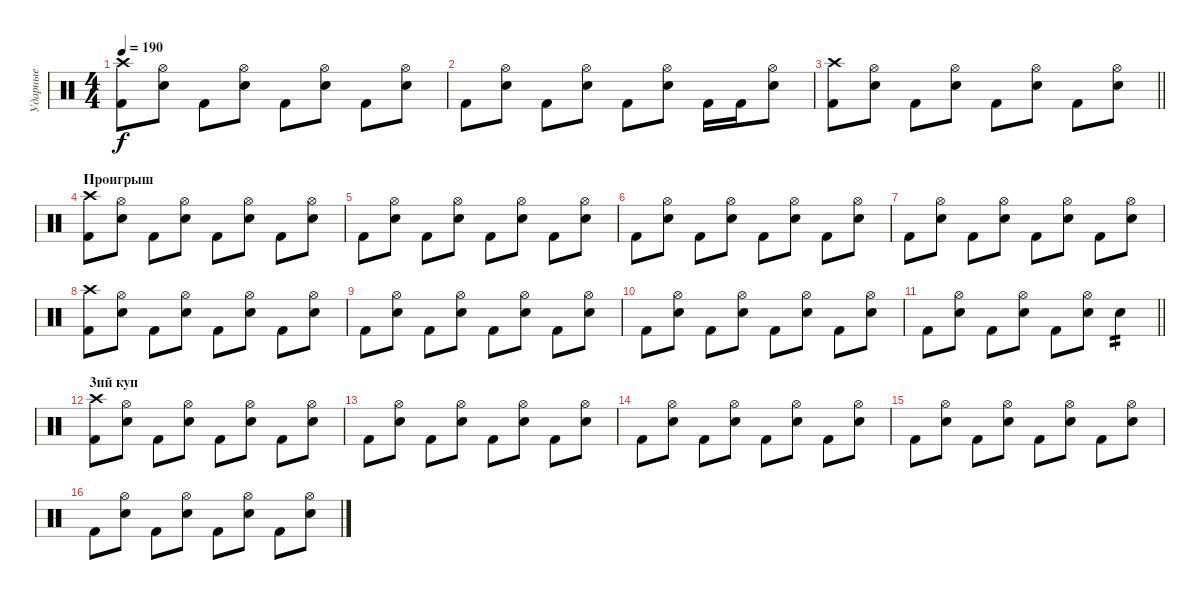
\track ("Ударные" "Ударные") {instrument percussion}
\staff {score}
\articulation defaults
\ts (4 4)
\tempo 190
\clef neutral
\ks c
("Crash high (hit)" "Kick (hit) 2").8{dy f} ("Hi-Hat (open)" "Electric Snare (hit)").8 "Kick (hit) 2".8 ("Hi-Hat (open)" "Electric Snare (hit)").8 "Kick (hit) 2".8 ("Hi-Hat (open)" "Electric Snare (hit)").8 "Kick (hit) 2".8 ("Hi-Hat (open)" "Electric Snare (hit)").8 |
"Kick (hit) 2".8 ("Hi-Hat (open)" "Electric Snare (hit)").8 "Kick (hit) 2".8 ("Hi-Hat (open)" "Electric Snare (hit)").8 "Kick (hit) 2".8 ("Hi-Hat (open)" "Electric Snare (hit)").8 "Kick (hit) 2".16 "Kick (hit) 2".16 ("Hi-Hat (open)" "Electric Snare (hit)").8 |
\barLineRight lightlight
("Crash high (hit)" "Kick (hit) 2").8 ("Hi-Hat (open)" "Electric Snare (hit)").8 "Kick (hit) 2".8 ("Hi-Hat (open)" "Electric Snare (hit)").8 "Kick (hit) 2".8 ("Hi-Hat (open)" "Electric Snare (hit)").8 "Kick (hit) 2".8 ("Hi-Hat (open)" "Electric Snare (hit)").8 |
\section ("" "Проигрыш")
("Crash high (hit)" "Kick (hit) 2").8 ("Hi-Hat (open)" "Electric Snare (hit)").8 "Kick (hit) 2".8 ("Hi-Hat (open)" "Electric Snare (hit)").8 "Kick (hit) 2".8 ("Hi-Hat (open)" "Electric Snare (hit)").8 "Kick (hit) 2".8 ("Hi-Hat (open)" "Electric Snare (hit)").8 |
"Kick (hit) 2".8 ("Hi-Hat (open)" "Electric Snare (hit)").8 "Kick (hit) 2".8 ("Hi-Hat (open)" "Electric Snare (hit)").8 "Kick (hit) 2".8 ("Hi-Hat (open)" "Electric Snare (hit)").8 "Kick (hit) 2".8 ("Hi-Hat (open)" "Electric Snare (hit)").8 |
"Kick (hit) 2".8 ("Hi-Hat (open)" "Electric Snare (hit)").8 "Kick (hit) 2".8 ("Hi-Hat (open)" "Electric Snare (hit)").8 "Kick (hit) 2".8 ("Hi-Hat (open)" "Electric Snare (hit)").8 "Kick (hit) 2".8 ("Hi-Hat (open)" "Electric Snare (hit)").8 |
"Kick (hit) 2".8 ("Hi-Hat (open)" "Electric Snare (hit)").8 "Kick (hit) 2".8 ("Hi-Hat (open)" "Electric Snare (hit)").8 "Kick (hit) 2".8 ("Hi-Hat (open)" "Electric Snare (hit)").8 "Kick (hit) 2".8 ("Hi-Hat (open)" "Electric Snare (hit)").8 |
("Crash high (hit)" "Kick (hit) 2").8 ("Hi-Hat (open)" "Electric Snare (hit)").8 "Kick (hit) 2".8 ("Hi-Hat (open)" "Electric Snare (hit)").8 "Kick (hit) 2".8 ("Hi-Hat (open)" "Electric Snare (hit)").8 "Kick (hit) 2".8 ("Hi-Hat (open)" "Electric Snare (hit)").8 |
"Kick (hit) 2".8 ("Hi-Hat (open)" "Electric Snare (hit)").8 "Kick (hit) 2".8 ("Hi-Hat (open)" "Electric Snare (hit)").8 "Kick (hit) 2".8 ("Hi-Hat (open)" "Electric Snare (hit)").8 "Kick (hit) 2".8 ("Hi-Hat (open)" "Electric Snare (hit)").8 |
"Kick (hit) 2".8 ("Hi-Hat (open)" "Electric Snare (hit)").8 "Kick (hit) 2".8 ("Hi-Hat (open)" "Electric Snare (hit)").8 "Kick (hit) 2".8 ("Hi-Hat (open)" "Electric Snare (hit)").8 "Kick (hit) 2".8 ("Hi-Hat (open)" "Electric Snare (hit)").8 |
\barLineRight lightlight "Kick (hit) 2".8
("Hi-Hat (open)" "Electric Snare (hit)").8 "Kick (hit) 2".8 ("Hi-Hat (open)" "Electric Snare (hit)").8 "Kick (hit) 2".8 ("Hi-Hat (open)" "Electric Snare (hit)").8 "Electric Snare (hit)".4{tp 2} |
\section ("" "3ий куп")
("Crash high (hit)" "Kick (hit) 2").8 ("Hi-Hat (open)" "Electric Snare (hit)").8 "Kick (hit) 2".8 ("Hi-Hat (open)" "Electric Snare (hit)").8 "Kick (hit) 2".8 ("Hi-Hat (open)" "Electric Snare (hit)").8 "Kick (hit) 2".8 ("Hi-Hat (open)" "Electric Snare (hit)").8 |
"Kick (hit) 2".8 ("Hi-Hat (open)" "Electric Snare (hit)").8 "Kick (hit) 2".8 ("Hi-Hat (open)" "Electric Snare (hit)").8 "Kick (hit) 2".8 ("Hi-Hat (open)" "Electric Snare (hit)").8 "Kick (hit) 2".8 ("Hi-Hat (open)" "Electric Snare (hit)").8 |
"Kick (hit) 2".8 ("Hi-Hat (open)" "Electric Snare (hit)").8 "Kick (hit) 2".8 ("Hi-Hat (open)" "Electric Snare (hit)").8 "Kick (hit) 2".8 ("Hi-Hat (open)" "Electric Snare (hit)").8 "Kick (hit) 2".8 ("Hi-Hat (open)" "Electric Snare (hit)").8 |
"Kick (hit) 2".8 ("Hi-Hat (open)" "Electric Snare (hit)").8 "Kick (hit) 2".8 ("Hi-Hat (open)" "Electric Snare (hit)").8 "Kick (hit) 2".8 ("Hi-Hat (open)" "Electric Snare (hit)").8 "Kick (hit) 2".8 ("Hi-Hat (open)" "Electric Snare (hit)").8 |
"Kick (hit) 2".8 ("Hi-Hat (open)" "Electric Snare (hit)").8 "Kick (hit) 2".8 ("Hi-Hat (open)" "Electric Snare (hit)").8 "Kick (hit) 2".8 ("Hi-Hat (open)" "Electric Snare (hit)").8 "Kick (hit) 2".8 ("Hi-Hat (open)" "Electric Snare (hit)").8
